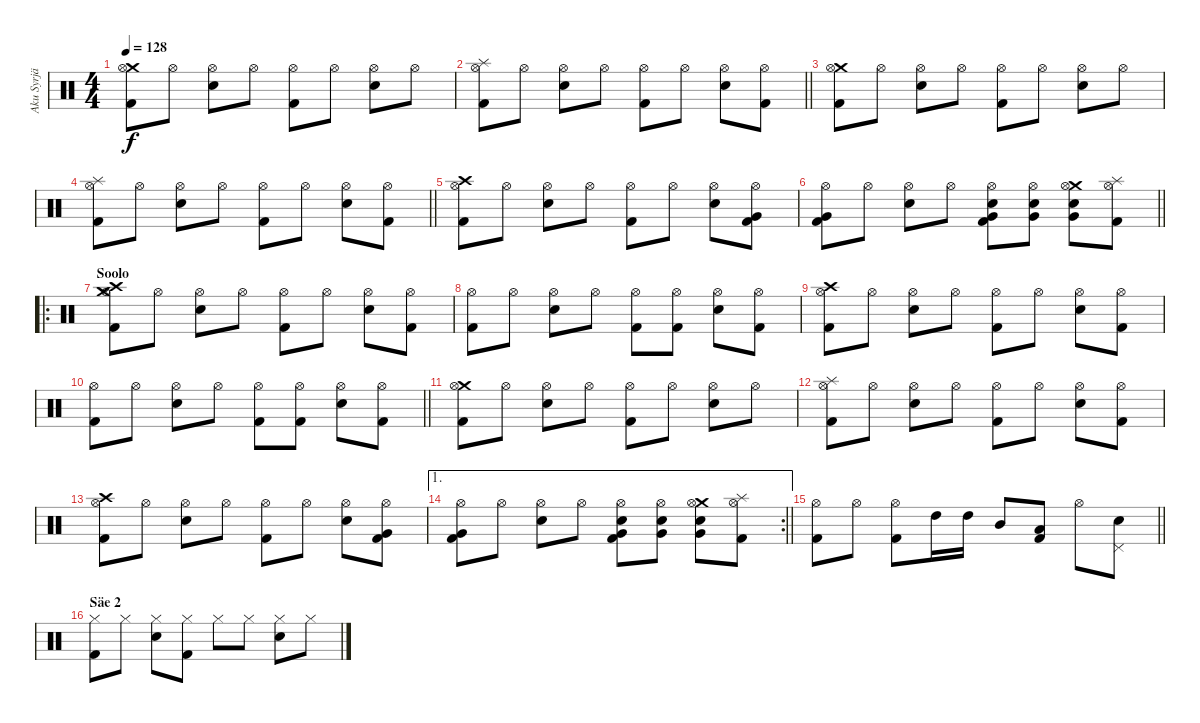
\track ("Aku Syrjä" "Aku Syrjä") {instrument percussion}
\staff {score}
\articulation defaults
\ts (4 4)
\tempo 128
\clef neutral
\ks c
("Crash medium (hit)" "Hi-Hat (open)" "Kick (hit) 2").8{dy f} "Hi-Hat (open)".8 ("Hi-Hat (open)" "Electric Snare (hit)").8 "Hi-Hat (open)".8 ("Hi-Hat (open)" "Kick (hit) 2").8 "Hi-Hat (open)".8 ("Hi-Hat (open)" "Electric Snare (hit)").8 "Hi-Hat (open)".8 |
\barLineRight lightlight
("Splash (hit)" "Hi-Hat (open)" "Kick (hit) 2").8 "Hi-Hat (open)".8 ("Hi-Hat (open)" "Electric Snare (hit)").8 "Hi-Hat (open)".8 ("Hi-Hat (open)" "Kick (hit) 2").8 "Hi-Hat (open)".8 ("Hi-Hat (open)" "Electric Snare (hit)").8 ("Hi-Hat (open)" "Kick (hit) 2").8 |
("Crash medium (hit)" "Hi-Hat (open)" "Kick (hit) 2").8 "Hi-Hat (open)".8 ("Hi-Hat (open)" "Electric Snare (hit)").8 "Hi-Hat (open)".8 ("Hi-Hat (open)" "Kick (hit) 2").8 "Hi-Hat (open)".8 ("Hi-Hat (open)" "Electric Snare (hit)").8 "Hi-Hat (open)".8 |
\barLineRight lightlight
("Splash (hit)" "Hi-Hat (open)" "Kick (hit) 2").8 "Hi-Hat (open)".8 ("Hi-Hat (open)" "Electric Snare (hit)").8 "Hi-Hat (open)".8 ("Hi-Hat (open)" "Kick (hit) 2").8 "Hi-Hat (open)".8 ("Hi-Hat (open)" "Electric Snare (hit)").8 ("Hi-Hat (open)" "Kick (hit) 2").8 |
("Crash high (hit)" "Hi-Hat (open)" "Kick (hit) 2").8 "Hi-Hat (open)".8 ("Hi-Hat (open)" "Electric Snare (hit)").8 "Hi-Hat (open)".8 ("Hi-Hat (open)" "Kick (hit) 2").8 "Hi-Hat (open)".8 ("Hi-Hat (open)" "Electric Snare (hit)").8 ("Very Low Tom (hit)" "Hi-Hat (open)" "Kick (hit) 2").8 |
\barLineRight lightlight
("Very Low Tom (hit)" "Hi-Hat (open)" "Kick (hit) 2").8 "Hi-Hat (open)".8 ("Hi-Hat (open)" "Electric Snare (hit)").8 "Hi-Hat (open)".8 ("Very Low Tom (hit)" "Hi-Hat (open)" "Electric Snare (hit)" "Kick (hit) 2").8 ("Very Low Tom (hit)" "Hi-Hat (open)" "Electric Snare (hit)").8 ("Crash medium (hit)" "Very Low Tom (hit)" "Hi-Hat (open)" "Electric Snare (hit)").8 ("Splash (hit)" "Hi-Hat (open)" "Kick (hit) 2").8 |
\ro
\section ("" "Soolo")
("Crash high (hit)" "Crash medium (hit)" "Hi-Hat (open)" "Kick (hit) 2").8 "Hi-Hat (open)".8 ("Hi-Hat (open)" "Electric Snare (hit)").8 "Hi-Hat (open)".8 ("Hi-Hat (open)" "Kick (hit) 2").8 "Hi-Hat (open)".8 ("Hi-Hat (open)" "Electric Snare (hit)").8 ("Hi-Hat (open)" "Kick (hit) 2").8 |
("Hi-Hat (open)" "Kick (hit) 2").8 "Hi-Hat (open)".8 ("Hi-Hat (open)" "Electric Snare (hit)").8 "Hi-Hat (open)".8 ("Hi-Hat (open)" "Kick (hit) 2").8 ("Hi-Hat (open)" "Kick (hit) 2").8 ("Hi-Hat (open)" "Electric Snare (hit)").8 ("Hi-Hat (open)" "Kick (hit) 2").8 |
("Crash high (hit)" "Hi-Hat (open)" "Kick (hit) 2").8 "Hi-Hat (open)".8 ("Hi-Hat (open)" "Electric Snare (hit)").8 "Hi-Hat (open)".8 ("Hi-Hat (open)" "Kick (hit) 2").8 "Hi-Hat (open)".8 ("Hi-Hat (open)" "Electric Snare (hit)").8 ("Hi-Hat (open)" "Kick (hit) 2").8 |
\barLineRight lightlight
("Hi-Hat (open)" "Kick (hit) 2").8 "Hi-Hat (open)".8 ("Hi-Hat (open)" "Electric Snare (hit)").8 "Hi-Hat (open)".8 ("Hi-Hat (open)" "Kick (hit) 2").8 ("Hi-Hat (open)" "Kick (hit) 2").8 ("Hi-Hat (open)" "Electric Snare (hit)").8 ("Hi-Hat (open)" "Kick (hit) 2").8 |
("Crash medium (hit)" "Hi-Hat (open)" "Kick (hit) 2").8 "Hi-Hat (open)".8 ("Hi-Hat (open)" "Electric Snare (hit)").8 "Hi-Hat (open)".8 ("Hi-Hat (open)" "Kick (hit) 2").8 "Hi-Hat (open)".8 ("Hi-Hat (open)" "Electric Snare (hit)").8 "Hi-Hat (open)".8 |
("Splash (hit)" "Hi-Hat (open)" "Kick (hit) 2").8 "Hi-Hat (open)".8 ("Hi-Hat (open)" "Electric Snare (hit)").8 "Hi-Hat (open)".8 ("Hi-Hat (open)" "Kick (hit) 2").8 "Hi-Hat (open)".8 ("Hi-Hat (open)" "Electric Snare (hit)").8 ("Hi-Hat (open)" "Kick (hit) 2").8 |
("Crash high (hit)" "Hi-Hat (open)" "Kick (hit) 2").8 "Hi-Hat (open)".8 ("Hi-Hat (open)" "Electric Snare (hit)").8 "Hi-Hat (open)".8 ("Hi-Hat (open)" "Kick (hit) 2").8 "Hi-Hat (open)".8 ("Hi-Hat (open)" "Electric Snare (hit)").8 ("Very Low Tom (hit)" "Hi-Hat (open)" "Kick (hit) 2").8 |
\ae 1
\rc 2
\barLineRight lightlight
("Very Low Tom (hit)" "Hi-Hat (open)" "Kick (hit) 2").8 "Hi-Hat (open)".8 ("Hi-Hat (open)" "Electric Snare (hit)").8 "Hi-Hat (open)".8 ("Very Low Tom (hit)" "Hi-Hat (open)" "Electric Snare (hit)" "Kick (hit) 2").8 ("Very Low Tom (hit)" "Hi-Hat (open)" "Electric Snare (hit)").8 ("Crash medium (hit)" "Very Low Tom (hit)" "Hi-Hat (open)" "Electric Snare (hit)").8 ("Splash (hit)" "Hi-Hat (open)" "Kick (hit) 2").8 |
\barLineRight lightlight
("Hi-Hat (open)" "Kick (hit) 2").8 "Hi-Hat (open)".8 ("Hi-Hat (open)" "Kick (hit) 2").8 "High Tom (hit)".16 "High Tom (hit)".16 "Mid Tom (hit)".8 ("Low Tom (hit)" "Kick (hit) 2").8 "Hi-Hat (open)".8 ("Pedal Hi-Hat (hit)" "Electric Snare (hit)").8 |
\section ("" "Säe 2")
("Hi-Hat (closed)" "Kick (hit) 2").8 "Hi-Hat (closed)".8 ("Hi-Hat (closed)" "Electric Snare (hit)").8 ("Hi-Hat (closed)" "Kick (hit) 2").8 "Hi-Hat (closed)".8 "Hi-Hat (closed)".8 ("Hi-Hat (closed)" "Electric Snare (hit)").8 "Hi-Hat (closed)".8
